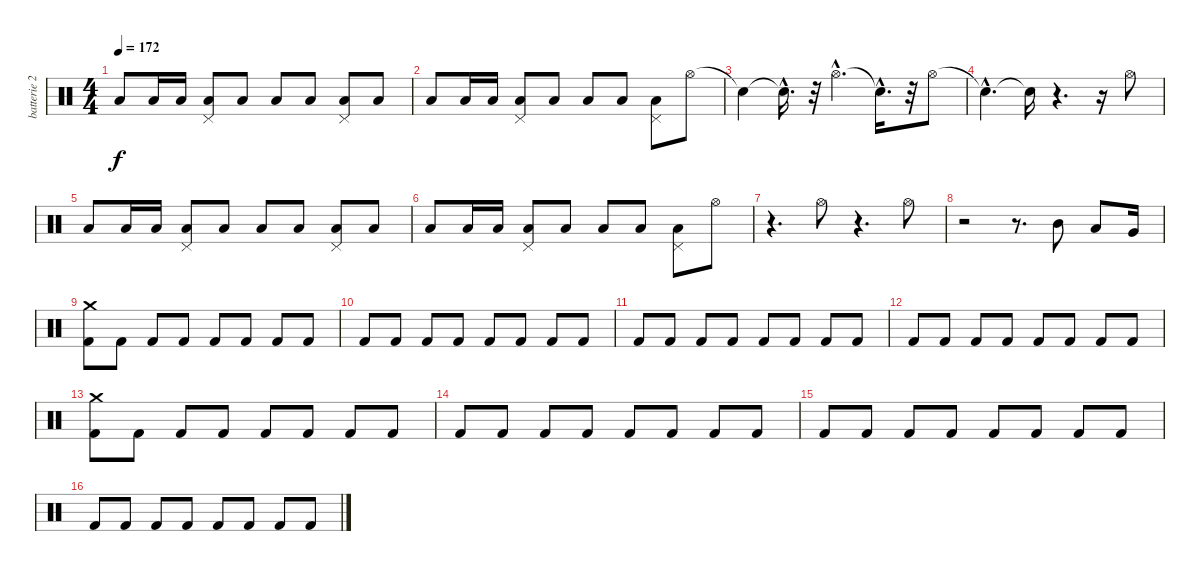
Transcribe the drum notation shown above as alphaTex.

\track ("batterie 2" "batterie 2") {instrument percussion}
\staff {score}
\articulation defaults
\ts (4 4)
\tempo 172
\clef neutral
\ks c "Low Tom (hit)".8{dy f} "Low Tom (hit)".16 "Low Tom (hit)".16
("Pedal Hi-Hat (hit)" "Low Tom (hit)").8 "Low Tom (hit)".8 "Low Tom (hit)".8 "Low Tom (hit)".8 ("Pedal Hi-Hat (hit)" "Low Tom (hit)").8 "Low Tom (hit)".8 |
"Low Tom (hit)".8 "Low Tom (hit)".16 "Low Tom (hit)".16 ("Pedal Hi-Hat (hit)" "Low Tom (hit)").8 "Low Tom (hit)".8 "Low Tom (hit)".8 "Low Tom (hit)".8 ("Pedal Hi-Hat (hit)" "Low Tom (hit)").8 "Hi-Hat (open)".8 |
"Snare (hit)"{t}.4 "Snare (hit)"{hac t}.16{d} r.32 "Hi-Hat (open)"{hac}.4{d} "Snare (hit)"{hac t}.16{d} r.32 "Hi-Hat (open)".8 |
"Snare (hit)"{hac t}.4{d} "Snare (hit)"{t}.16 r.4{d} r.16 "Hi-Hat (open)".8 |
"Low Tom (hit)".8 "Low Tom (hit)".16 "Low Tom (hit)".16 ("Pedal Hi-Hat (hit)" "Low Tom (hit)").8 "Low Tom (hit)".8 "Low Tom (hit)".8 "Low Tom (hit)".8 ("Pedal Hi-Hat (hit)" "Low Tom (hit)").8 "Low Tom (hit)".8 |
"Low Tom (hit)".8 "Low Tom (hit)".16 "Low Tom (hit)".16 ("Pedal Hi-Hat (hit)" "Low Tom (hit)").8 "Low Tom (hit)".8 "Low Tom (hit)".8 "Low Tom (hit)".8 ("Pedal Hi-Hat (hit)" "Low Tom (hit)").8 "Hi-Hat (open)".8 |
r.4{d} "Hi-Hat (open)".8 r.4{d} "Hi-Hat (open)".8 |
r.2 r.8{d} "Mid Tom (hit)".8 "Low Tom (hit)".8 "Very Low Tom (hit)".16 |
("Kick (hit) 2" "Crash medium (hit)").8 "Kick (hit) 2".8 "Kick (hit) 2".8 "Kick (hit) 2".8 "Kick (hit) 2".8 "Kick (hit) 2".8 "Kick (hit) 2".8 "Kick (hit) 2".8 |
"Kick (hit) 2".8 "Kick (hit) 2".8 "Kick (hit) 2".8 "Kick (hit) 2".8 "Kick (hit) 2".8 "Kick (hit) 2".8 "Kick (hit) 2".8 "Kick (hit) 2".8 |
"Kick (hit) 2".8 "Kick (hit) 2".8 "Kick (hit) 2".8 "Kick (hit) 2".8 "Kick (hit) 2".8 "Kick (hit) 2".8 "Kick (hit) 2".8 "Kick (hit) 2".8 |
"Kick (hit) 2".8 "Kick (hit) 2".8 "Kick (hit) 2".8 "Kick (hit) 2".8 "Kick (hit) 2".8 "Kick (hit) 2".8 "Kick (hit) 2".8 "Kick (hit) 2".8 |
("Kick (hit) 2" "Crash medium (hit)").8 "Kick (hit) 2".8 "Kick (hit) 2".8 "Kick (hit) 2".8 "Kick (hit) 2".8 "Kick (hit) 2".8 "Kick (hit) 2".8 "Kick (hit) 2".8 |
"Kick (hit) 2".8 "Kick (hit) 2".8 "Kick (hit) 2".8 "Kick (hit) 2".8 "Kick (hit) 2".8 "Kick (hit) 2".8 "Kick (hit) 2".8 "Kick (hit) 2".8 |
"Kick (hit) 2".8 "Kick (hit) 2".8 "Kick (hit) 2".8 "Kick (hit) 2".8 "Kick (hit) 2".8 "Kick (hit) 2".8 "Kick (hit) 2".8 "Kick (hit) 2".8 |
"Kick (hit) 2".8 "Kick (hit) 2".8 "Kick (hit) 2".8 "Kick (hit) 2".8 "Kick (hit) 2".8 "Kick (hit) 2".8 "Kick (hit) 2".8 "Kick (hit) 2".8
